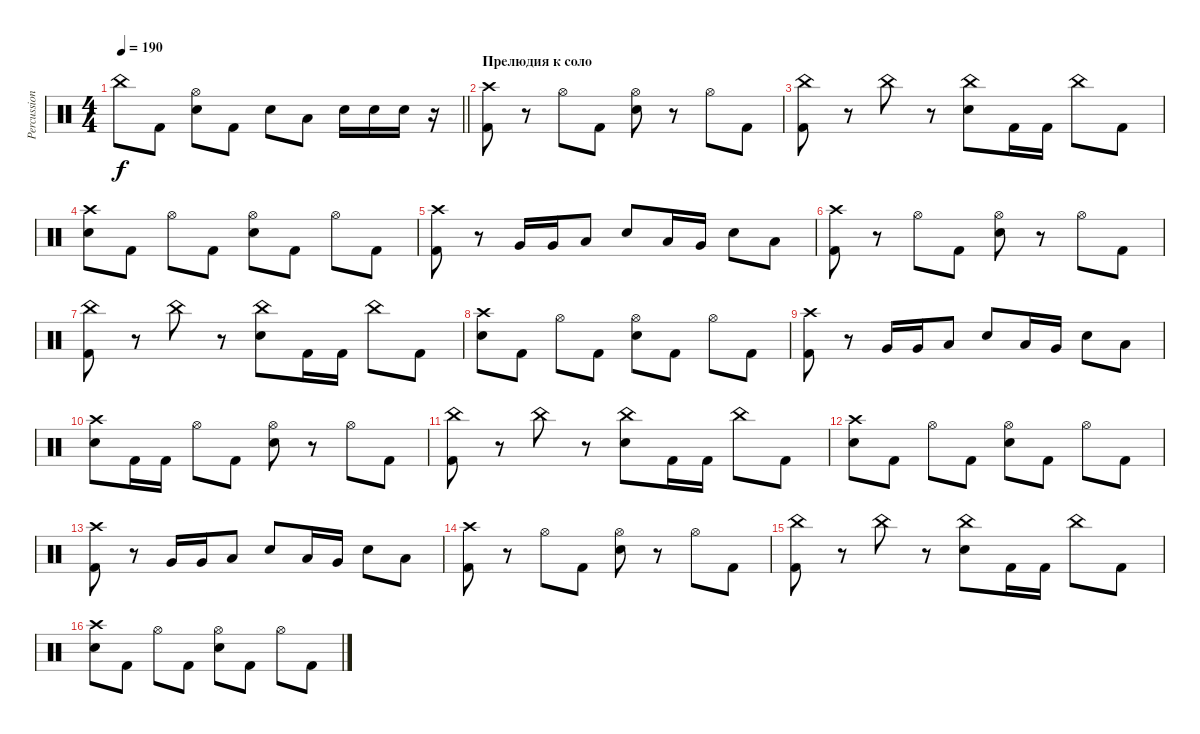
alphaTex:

\track ("Percussions" "Percussion") {instrument percussion}
\staff {score}
\articulation defaults
\ts (4 4)
\tempo 190
\clef neutral
\barLineRight lightlight
\ks c "China (hit)".8{dy f} "Kick (hit) 2".8
("Electric Snare (hit)" "Hi-Hat (open)").8 "Kick (hit) 2".8 "Electric Snare (hit)".8 "Low Floor Tom (hit)".8 "Electric Snare (hit)".16 "Electric Snare (hit)".16 "Electric Snare (hit)".16 r.16 |
\section ("" "Прелюдия к соло")
("Kick (hit) 2" "Crash high (hit)").8 r.8 "Hi-Hat (open)".8 "Kick (hit) 2".8 ("Electric Snare (hit)" "Hi-Hat (open)").8 r.8 "Hi-Hat (open)".8 "Kick (hit) 2".8 |
("Kick (hit) 2" "China (hit)").8 r.8 "China (hit)".8 r.8 ("Electric Snare (hit)" "China (hit)").8 "Kick (hit) 2".16 "Kick (hit) 2".16 "China (hit)".8 "Kick (hit) 2".8 |
("Electric Snare (hit)" "Crash high (hit)").8 "Kick (hit) 2".8 "Hi-Hat (open)".8 "Kick (hit) 2".8 ("Electric Snare (hit)" "Hi-Hat (open)").8 "Kick (hit) 2".8 "Hi-Hat (open)".8 "Kick (hit) 2".8 |
("Kick (hit) 2" "Crash high (hit)").8 r.8 "Very Low Tom (hit)".16 "Very Low Tom (hit)".16 "Low Floor Tom (hit)".8 "Electric Snare (hit)".8 "Low Tom (hit)".16 "Very Low Tom (hit)".16 "Electric Snare (hit)".8 "Low Floor Tom (hit)".8 |
("Kick (hit) 2" "Crash high (hit)").8 r.8 "Hi-Hat (open)".8 "Kick (hit) 2".8 ("Electric Snare (hit)" "Hi-Hat (open)").8 r.8 "Hi-Hat (open)".8 "Kick (hit) 2".8 |
("Kick (hit) 2" "China (hit)").8 r.8 "China (hit)".8 r.8 ("Electric Snare (hit)" "China (hit)").8 "Kick (hit) 2".16 "Kick (hit) 2".16 "China (hit)".8 "Kick (hit) 2".8 |
("Electric Snare (hit)" "Crash high (hit)").8 "Kick (hit) 2".8 "Hi-Hat (open)".8 "Kick (hit) 2".8 ("Electric Snare (hit)" "Hi-Hat (open)").8 "Kick (hit) 2".8 "Hi-Hat (open)".8 "Kick (hit) 2".8 |
("Kick (hit) 2" "Crash high (hit)").8 r.8 "Very Low Tom (hit)".16 "Very Low Tom (hit)".16 "Low Floor Tom (hit)".8 "Electric Snare (hit)".8 "Low Tom (hit)".16 "Very Low Tom (hit)".16 "Electric Snare (hit)".8 "Low Floor Tom (hit)".8 |
("Electric Snare (hit)" "Crash high (hit)").8 "Kick (hit) 2".16 "Kick (hit) 2".16 "Hi-Hat (open)".8 "Kick (hit) 2".8 ("Electric Snare (hit)" "Hi-Hat (open)").8 r.8 "Hi-Hat (open)".8 "Kick (hit) 2".8 |
("Kick (hit) 2" "China (hit)").8 r.8 "China (hit)".8 r.8 ("Electric Snare (hit)" "China (hit)").8 "Kick (hit) 2".16 "Kick (hit) 2".16 "China (hit)".8 "Kick (hit) 2".8 |
("Electric Snare (hit)" "Crash high (hit)").8 "Kick (hit) 2".8 "Hi-Hat (open)".8 "Kick (hit) 2".8 ("Electric Snare (hit)" "Hi-Hat (open)").8 "Kick (hit) 2".8 "Hi-Hat (open)".8 "Kick (hit) 2".8 |
("Kick (hit) 2" "Crash high (hit)").8 r.8 "Very Low Tom (hit)".16 "Very Low Tom (hit)".16 "Low Floor Tom (hit)".8 "Electric Snare (hit)".8 "Low Tom (hit)".16 "Very Low Tom (hit)".16 "Electric Snare (hit)".8 "Low Floor Tom (hit)".8 |
("Kick (hit) 2" "Crash high (hit)").8 r.8 "Hi-Hat (open)".8 "Kick (hit) 2".8 ("Electric Snare (hit)" "Hi-Hat (open)").8 r.8 "Hi-Hat (open)".8 "Kick (hit) 2".8 |
("Kick (hit) 2" "China (hit)").8 r.8 "China (hit)".8 r.8 ("Electric Snare (hit)" "China (hit)").8 "Kick (hit) 2".16 "Kick (hit) 2".16 "China (hit)".8 "Kick (hit) 2".8 |
("Electric Snare (hit)" "Crash high (hit)").8 "Kick (hit) 2".8 "Hi-Hat (open)".8 "Kick (hit) 2".8 ("Electric Snare (hit)" "Hi-Hat (open)").8 "Kick (hit) 2".8 "Hi-Hat (open)".8 "Kick (hit) 2".8
